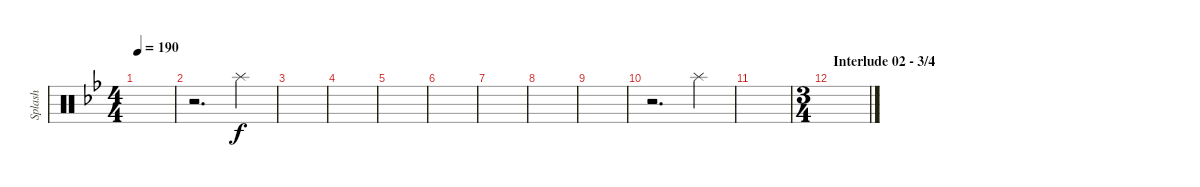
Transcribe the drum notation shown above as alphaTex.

\track ("Splash" "Splash") {instrument percussion}
\staff {score}
\articulation defaults
\ts (4 4)
\tempo 190
\clef neutral
\ks bb
|
r.2{d} "Splash (hit)".4 |
|
|
|
|
|
|
|
r.2{d} "Splash (hit)".4 |
|
\ts (3 4)
\section ("" "Interlude 02 - 3/4")
